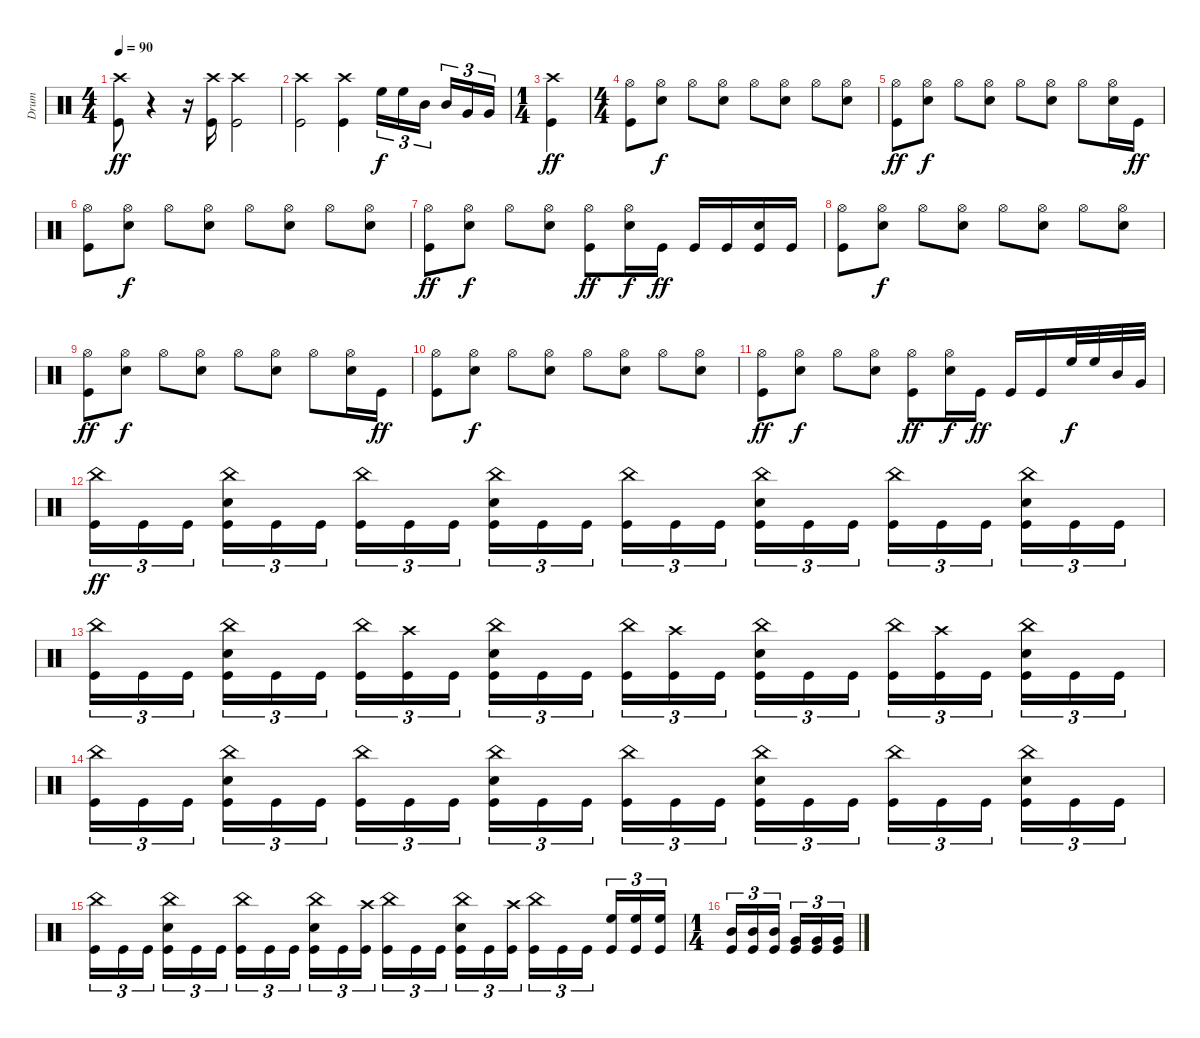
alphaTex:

\track ("Drum" "Drum") {instrument percussion}
\staff {score}
\articulation defaults
\ts (4 4)
\tempo 90
\clef neutral
\ks c
("Crash high (hit)" "Kick (hit)").8{dy ff} r.4 r.16 ("Crash high (hit)" "Kick (hit)").16 ("Crash high (hit)" "Kick (hit)").2 |
("Crash high (hit)" "Kick (hit)").2 ("Crash high (hit)" "Kick (hit)").4 "High Floor Tom (hit)".16{tu (3 2) dy f} "High Floor Tom (hit)".16{tu (3 2)} "Mid Tom (hit)".16{tu (3 2) beam splitsecondary} "Mid Tom (hit)".16{tu (3 2)} "Very Low Tom (hit)".16{tu (3 2)} "Very Low Tom (hit)".16{tu (3 2)} |
\ts (1 4)
("Crash high (hit)" "Kick (hit)").4{dy ff} |
\ts (4 4)
("Hi-Hat (open)" "Kick (hit)").8 ("Hi-Hat (open)" "Snare (hit) 2").8{dy f} "Hi-Hat (open)".8 ("Hi-Hat (open)" "Snare (hit) 2").8 "Hi-Hat (open)".8 ("Hi-Hat (open)" "Snare (hit) 2").8 "Hi-Hat (open)".8 ("Hi-Hat (open)" "Snare (hit) 2").8 |
("Hi-Hat (open)" "Kick (hit)").8{dy ff} ("Hi-Hat (open)" "Snare (hit) 2").8{dy f} "Hi-Hat (open)".8 ("Hi-Hat (open)" "Snare (hit) 2").8 "Hi-Hat (open)".8 ("Hi-Hat (open)" "Snare (hit) 2").8 "Hi-Hat (open)".8 ("Hi-Hat (open)" "Snare (hit) 2").16 "Kick (hit)".16{dy ff} |
("Hi-Hat (open)" "Kick (hit)").8 ("Hi-Hat (open)" "Snare (hit) 2").8{dy f} "Hi-Hat (open)".8 ("Hi-Hat (open)" "Snare (hit) 2").8 "Hi-Hat (open)".8 ("Hi-Hat (open)" "Snare (hit) 2").8 "Hi-Hat (open)".8 ("Hi-Hat (open)" "Snare (hit) 2").8 |
("Hi-Hat (open)" "Kick (hit)").8{dy ff} ("Hi-Hat (open)" "Snare (hit) 2").8{dy f} "Hi-Hat (open)".8 ("Hi-Hat (open)" "Snare (hit) 2").8 ("Hi-Hat (open)" "Kick (hit)").8{dy ff} ("Hi-Hat (open)" "Snare (hit) 2").16{dy f} "Kick (hit)".16{dy ff} "Kick (hit)".16 "Kick (hit)".16 ("Snare (hit) 2" "Kick (hit)").16 "Kick (hit)".16 |
("Hi-Hat (open)" "Kick (hit)").8 ("Hi-Hat (open)" "Snare (hit) 2").8{dy f} "Hi-Hat (open)".8 ("Hi-Hat (open)" "Snare (hit) 2").8 "Hi-Hat (open)".8 ("Hi-Hat (open)" "Snare (hit) 2").8 "Hi-Hat (open)".8 ("Hi-Hat (open)" "Snare (hit) 2").8 |
("Hi-Hat (open)" "Kick (hit)").8{dy ff} ("Hi-Hat (open)" "Snare (hit) 2").8{dy f} "Hi-Hat (open)".8 ("Hi-Hat (open)" "Snare (hit) 2").8 "Hi-Hat (open)".8 ("Hi-Hat (open)" "Snare (hit) 2").8 "Hi-Hat (open)".8 ("Hi-Hat (open)" "Snare (hit) 2").16 "Kick (hit)".16{dy ff} |
("Hi-Hat (open)" "Kick (hit)").8 ("Hi-Hat (open)" "Snare (hit) 2").8{dy f} "Hi-Hat (open)".8 ("Hi-Hat (open)" "Snare (hit) 2").8 "Hi-Hat (open)".8 ("Hi-Hat (open)" "Snare (hit) 2").8 "Hi-Hat (open)".8 ("Hi-Hat (open)" "Snare (hit) 2").8 |
("Hi-Hat (open)" "Kick (hit)").8{dy ff} ("Hi-Hat (open)" "Snare (hit) 2").8{dy f} "Hi-Hat (open)".8 ("Hi-Hat (open)" "Snare (hit) 2").8 ("Hi-Hat (open)" "Kick (hit)").8{dy ff} ("Hi-Hat (open)" "Snare (hit) 2").16{dy f} "Kick (hit)".16{dy ff} "Kick (hit)".16 "Kick (hit)".16 "High Floor Tom (hit)".32{dy f} "High Floor Tom (hit)".32 "Mid Tom (hit)".32 "Very Low Tom (hit)".32 |
("China (hit)" "Kick (hit)").16{tu (3 2) dy ff} "Kick (hit)".16{tu (3 2)} "Kick (hit)".16{tu (3 2) beam splitsecondary} ("China (hit)" "Snare (hit) 2" "Kick (hit)").16{tu (3 2)} "Kick (hit)".16{tu (3 2)} "Kick (hit)".16{tu (3 2)} ("China (hit)" "Kick (hit)").16{tu (3 2)} "Kick (hit)".16{tu (3 2)} "Kick (hit)".16{tu (3 2) beam splitsecondary} ("China (hit)" "Snare (hit) 2" "Kick (hit)").16{tu (3 2)} "Kick (hit)".16{tu (3 2)} "Kick (hit)".16{tu (3 2)} ("China (hit)" "Kick (hit)").16{tu (3 2)} "Kick (hit)".16{tu (3 2)} "Kick (hit)".16{tu (3 2) beam splitsecondary} ("China (hit)" "Snare (hit) 2" "Kick (hit)").16{tu (3 2)} "Kick (hit)".16{tu (3 2)} "Kick (hit)".16{tu (3 2)} ("China (hit)" "Kick (hit)").16{tu (3 2)} "Kick (hit)".16{tu (3 2)} "Kick (hit)".16{tu (3 2) beam splitsecondary} ("China (hit)" "Snare (hit) 2" "Kick (hit)").16{tu (3 2)} "Kick (hit)".16{tu (3 2)} "Kick (hit)".16{tu (3 2)} |
("China (hit)" "Kick (hit)").16{tu (3 2)} "Kick (hit)".16{tu (3 2)} "Kick (hit)".16{tu (3 2) beam splitsecondary} ("China (hit)" "Snare (hit) 2" "Kick (hit)").16{tu (3 2)} "Kick (hit)".16{tu (3 2)} "Kick (hit)".16{tu (3 2)} ("China (hit)" "Kick (hit)").16{tu (3 2)} ("Crash high (hit)" "Kick (hit)").16{tu (3 2)} "Kick (hit)".16{tu (3 2) beam splitsecondary} ("China (hit)" "Snare (hit) 2" "Kick (hit)").16{tu (3 2)} "Kick (hit)".16{tu (3 2)} "Kick (hit)".16{tu (3 2)} ("China (hit)" "Kick (hit)").16{tu (3 2)} ("Crash high (hit)" "Kick (hit)").16{tu (3 2)} "Kick (hit)".16{tu (3 2) beam splitsecondary} ("China (hit)" "Snare (hit) 2" "Kick (hit)").16{tu (3 2)} "Kick (hit)".16{tu (3 2)} "Kick (hit)".16{tu (3 2)} ("China (hit)" "Kick (hit)").16{tu (3 2)} ("Crash high (hit)" "Kick (hit)").16{tu (3 2)} "Kick (hit)".16{tu (3 2) beam splitsecondary} ("China (hit)" "Snare (hit) 2" "Kick (hit)").16{tu (3 2)} "Kick (hit)".16{tu (3 2)} "Kick (hit)".16{tu (3 2)} |
("China (hit)" "Kick (hit)").16{tu (3 2)} "Kick (hit)".16{tu (3 2)} "Kick (hit)".16{tu (3 2) beam splitsecondary} ("China (hit)" "Snare (hit) 2" "Kick (hit)").16{tu (3 2)} "Kick (hit)".16{tu (3 2)} "Kick (hit)".16{tu (3 2)} ("China (hit)" "Kick (hit)").16{tu (3 2)} "Kick (hit)".16{tu (3 2)} "Kick (hit)".16{tu (3 2) beam splitsecondary} ("China (hit)" "Snare (hit) 2" "Kick (hit)").16{tu (3 2)} "Kick (hit)".16{tu (3 2)} "Kick (hit)".16{tu (3 2)} ("China (hit)" "Kick (hit)").16{tu (3 2)} "Kick (hit)".16{tu (3 2)} "Kick (hit)".16{tu (3 2) beam splitsecondary} ("China (hit)" "Snare (hit) 2" "Kick (hit)").16{tu (3 2)} "Kick (hit)".16{tu (3 2)} "Kick (hit)".16{tu (3 2)} ("China (hit)" "Kick (hit)").16{tu (3 2)} "Kick (hit)".16{tu (3 2)} "Kick (hit)".16{tu (3 2) beam splitsecondary} ("China (hit)" "Snare (hit) 2" "Kick (hit)").16{tu (3 2)} "Kick (hit)".16{tu (3 2)} "Kick (hit)".16{tu (3 2)} |
("China (hit)" "Kick (hit)").16{tu (3 2)} "Kick (hit)".16{tu (3 2)} "Kick (hit)".16{tu (3 2) beam splitsecondary} ("China (hit)" "Snare (hit) 2" "Kick (hit)").16{tu (3 2)} "Kick (hit)".16{tu (3 2)} "Kick (hit)".16{tu (3 2)} ("China (hit)" "Kick (hit)").16{tu (3 2)} "Kick (hit)".16{tu (3 2)} "Kick (hit)".16{tu (3 2) beam splitsecondary} ("China (hit)" "Snare (hit) 2" "Kick (hit)").16{tu (3 2)} "Kick (hit)".16{tu (3 2)} ("Crash high (hit)" "Kick (hit)").16{tu (3 2)} ("China (hit)" "Kick (hit)").16{tu (3 2)} "Kick (hit)".16{tu (3 2)} "Kick (hit)".16{tu (3 2) beam splitsecondary} ("China (hit)" "Snare (hit) 2" "Kick (hit)").16{tu (3 2)} "Kick (hit)".16{tu (3 2)} ("Crash high (hit)" "Kick (hit)").16{tu (3 2)} ("China (hit)" "Kick (hit)").16{tu (3 2)} "Kick (hit)".16{tu (3 2)} "Kick (hit)".16{tu (3 2) beam splitsecondary} ("High Floor Tom (hit)" "Kick (hit)").16{tu (3 2)} ("High Floor Tom (hit)" "Kick (hit)").16{tu (3 2)} ("High Floor Tom (hit)" "Kick (hit)").16{tu (3 2)} |
\ts (1 4)
("Mid Tom (hit)" "Kick (hit)").16{tu (3 2)} ("Mid Tom (hit)" "Kick (hit)").16{tu (3 2)} ("Mid Tom (hit)" "Kick (hit)").16{tu (3 2) beam splitsecondary} ("Very Low Tom (hit)" "Kick (hit)").16{tu (3 2)} ("Very Low Tom (hit)" "Kick (hit)").16{tu (3 2)} ("Very Low Tom (hit)" "Kick (hit)").16{tu (3 2)}
